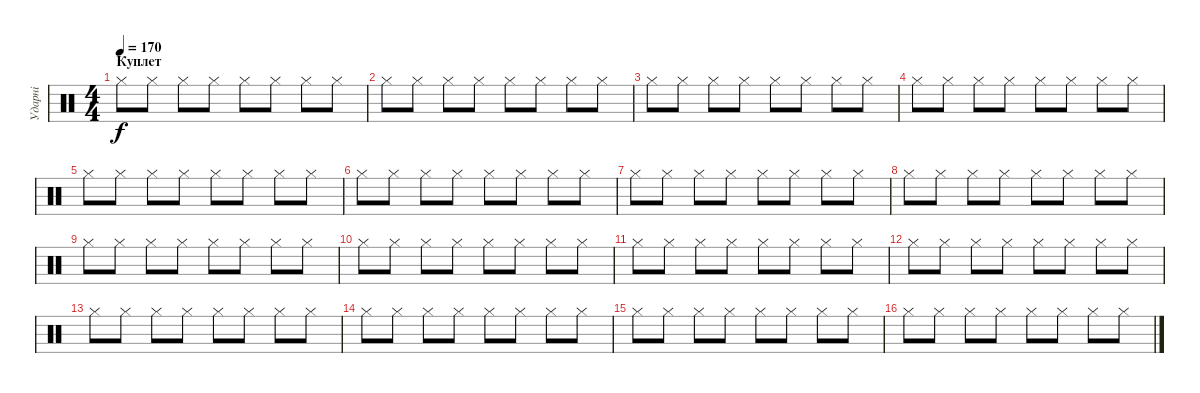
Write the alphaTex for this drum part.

\track ("Ударні" "Ударні") {instrument percussion}
\staff {score}
\articulation defaults
\ts (4 4)
\section ("" "Куплет")
\tempo 170
\clef neutral
\ks c "Hi-Hat (closed)".8{dy f} "Hi-Hat (closed)".8 "Hi-Hat (closed)".8 "Hi-Hat (closed)".8 "Hi-Hat (closed)".8 "Hi-Hat (closed)".8 "Hi-Hat (closed)".8 "Hi-Hat (closed)".8
|
"Hi-Hat (closed)".8 "Hi-Hat (closed)".8 "Hi-Hat (closed)".8 "Hi-Hat (closed)".8 "Hi-Hat (closed)".8 "Hi-Hat (closed)".8 "Hi-Hat (closed)".8 "Hi-Hat (closed)".8 |
"Hi-Hat (closed)".8 "Hi-Hat (closed)".8 "Hi-Hat (closed)".8 "Hi-Hat (closed)".8 "Hi-Hat (closed)".8 "Hi-Hat (closed)".8 "Hi-Hat (closed)".8 "Hi-Hat (closed)".8 |
"Hi-Hat (closed)".8 "Hi-Hat (closed)".8 "Hi-Hat (closed)".8 "Hi-Hat (closed)".8 "Hi-Hat (closed)".8 "Hi-Hat (closed)".8 "Hi-Hat (closed)".8 "Hi-Hat (closed)".8 |
"Hi-Hat (closed)".8 "Hi-Hat (closed)".8 "Hi-Hat (closed)".8 "Hi-Hat (closed)".8 "Hi-Hat (closed)".8 "Hi-Hat (closed)".8 "Hi-Hat (closed)".8 "Hi-Hat (closed)".8 |
"Hi-Hat (closed)".8 "Hi-Hat (closed)".8 "Hi-Hat (closed)".8 "Hi-Hat (closed)".8 "Hi-Hat (closed)".8 "Hi-Hat (closed)".8 "Hi-Hat (closed)".8 "Hi-Hat (closed)".8 |
"Hi-Hat (closed)".8 "Hi-Hat (closed)".8 "Hi-Hat (closed)".8 "Hi-Hat (closed)".8 "Hi-Hat (closed)".8 "Hi-Hat (closed)".8 "Hi-Hat (closed)".8 "Hi-Hat (closed)".8 |
"Hi-Hat (closed)".8 "Hi-Hat (closed)".8 "Hi-Hat (closed)".8 "Hi-Hat (closed)".8 "Hi-Hat (closed)".8 "Hi-Hat (closed)".8 "Hi-Hat (closed)".8 "Hi-Hat (closed)".8 |
"Hi-Hat (closed)".8 "Hi-Hat (closed)".8 "Hi-Hat (closed)".8 "Hi-Hat (closed)".8 "Hi-Hat (closed)".8 "Hi-Hat (closed)".8 "Hi-Hat (closed)".8 "Hi-Hat (closed)".8 |
"Hi-Hat (closed)".8 "Hi-Hat (closed)".8 "Hi-Hat (closed)".8 "Hi-Hat (closed)".8 "Hi-Hat (closed)".8 "Hi-Hat (closed)".8 "Hi-Hat (closed)".8 "Hi-Hat (closed)".8 |
"Hi-Hat (closed)".8 "Hi-Hat (closed)".8 "Hi-Hat (closed)".8 "Hi-Hat (closed)".8 "Hi-Hat (closed)".8 "Hi-Hat (closed)".8 "Hi-Hat (closed)".8 "Hi-Hat (closed)".8 |
"Hi-Hat (closed)".8 "Hi-Hat (closed)".8 "Hi-Hat (closed)".8 "Hi-Hat (closed)".8 "Hi-Hat (closed)".8 "Hi-Hat (closed)".8 "Hi-Hat (closed)".8 "Hi-Hat (closed)".8 |
"Hi-Hat (closed)".8 "Hi-Hat (closed)".8 "Hi-Hat (closed)".8 "Hi-Hat (closed)".8 "Hi-Hat (closed)".8 "Hi-Hat (closed)".8 "Hi-Hat (closed)".8 "Hi-Hat (closed)".8 |
"Hi-Hat (closed)".8 "Hi-Hat (closed)".8 "Hi-Hat (closed)".8 "Hi-Hat (closed)".8 "Hi-Hat (closed)".8 "Hi-Hat (closed)".8 "Hi-Hat (closed)".8 "Hi-Hat (closed)".8 |
"Hi-Hat (closed)".8 "Hi-Hat (closed)".8 "Hi-Hat (closed)".8 "Hi-Hat (closed)".8 "Hi-Hat (closed)".8 "Hi-Hat (closed)".8 "Hi-Hat (closed)".8 "Hi-Hat (closed)".8 |
"Hi-Hat (closed)".8 "Hi-Hat (closed)".8 "Hi-Hat (closed)".8 "Hi-Hat (closed)".8 "Hi-Hat (closed)".8 "Hi-Hat (closed)".8 "Hi-Hat (closed)".8 "Hi-Hat (closed)".8
